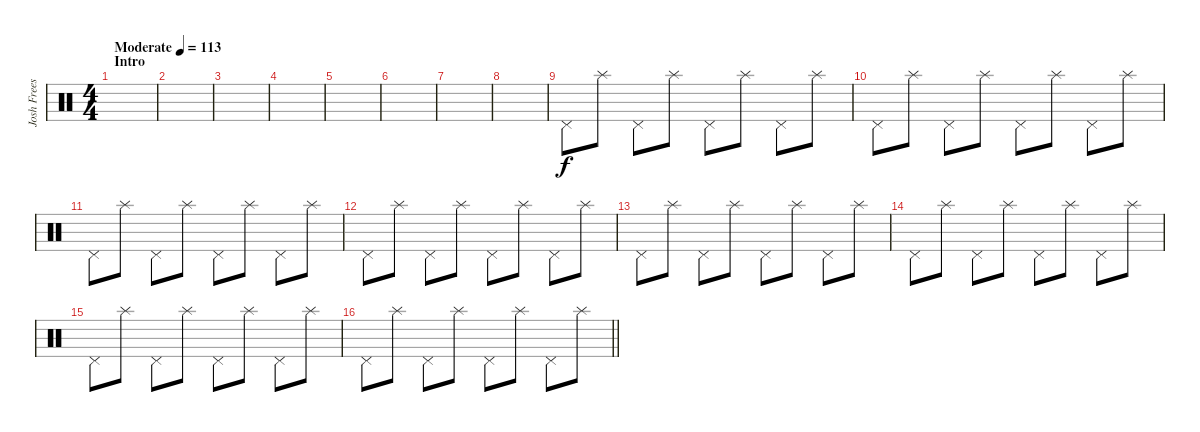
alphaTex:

\track ("Josh Freese (Studio Drummer)" "Josh Frees") {instrument percussion}
\staff {score}
\articulation defaults
\ts (4 4)
\section ("" "Intro")
\tempo (113 "Moderate")
\clef neutral
\ks c
|
|
|
|
|
|
|
|
"Pedal Hi-Hat (hit)".8 "Splash (hit)".8 "Pedal Hi-Hat (hit)".8 "Splash (hit)".8 "Pedal Hi-Hat (hit)".8 "Splash (hit)".8 "Pedal Hi-Hat (hit)".8 "Splash (hit)".8 |
"Pedal Hi-Hat (hit)".8 "Splash (hit)".8 "Pedal Hi-Hat (hit)".8 "Splash (hit)".8 "Pedal Hi-Hat (hit)".8 "Splash (hit)".8 "Pedal Hi-Hat (hit)".8 "Splash (hit)".8 |
"Pedal Hi-Hat (hit)".8 "Splash (hit)".8 "Pedal Hi-Hat (hit)".8 "Splash (hit)".8 "Pedal Hi-Hat (hit)".8 "Splash (hit)".8 "Pedal Hi-Hat (hit)".8 "Splash (hit)".8 |
"Pedal Hi-Hat (hit)".8 "Splash (hit)".8 "Pedal Hi-Hat (hit)".8 "Splash (hit)".8 "Pedal Hi-Hat (hit)".8 "Splash (hit)".8 "Pedal Hi-Hat (hit)".8 "Splash (hit)".8 |
"Pedal Hi-Hat (hit)".8 "Splash (hit)".8 "Pedal Hi-Hat (hit)".8 "Splash (hit)".8 "Pedal Hi-Hat (hit)".8 "Splash (hit)".8 "Pedal Hi-Hat (hit)".8 "Splash (hit)".8 |
"Pedal Hi-Hat (hit)".8 "Splash (hit)".8 "Pedal Hi-Hat (hit)".8 "Splash (hit)".8 "Pedal Hi-Hat (hit)".8 "Splash (hit)".8 "Pedal Hi-Hat (hit)".8 "Splash (hit)".8 |
"Pedal Hi-Hat (hit)".8 "Splash (hit)".8 "Pedal Hi-Hat (hit)".8 "Splash (hit)".8 "Pedal Hi-Hat (hit)".8 "Splash (hit)".8 "Pedal Hi-Hat (hit)".8 "Splash (hit)".8 |
\barLineRight lightlight "Pedal Hi-Hat (hit)".8 "Splash (hit)".8 "Pedal Hi-Hat (hit)".8 "Splash (hit)".8 "Pedal Hi-Hat (hit)".8 "Splash (hit)".8 "Pedal Hi-Hat (hit)".8 "Splash (hit)".8
